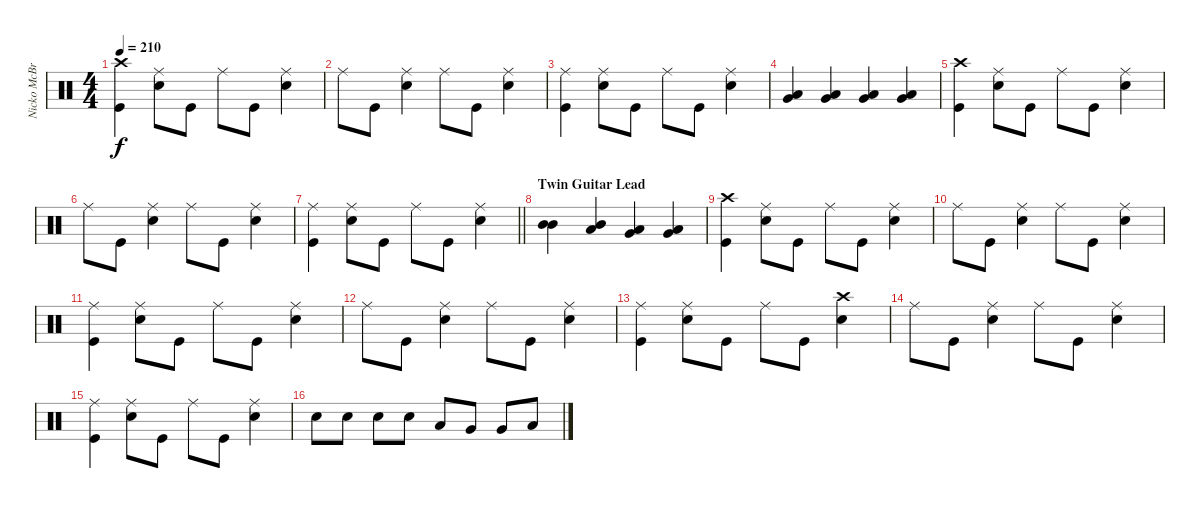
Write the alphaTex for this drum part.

\track ("Nicko McBrain" "Nicko McBr") {instrument percussion}
\staff {score}
\articulation defaults
\ts (4 4)
\tempo 210
\clef neutral
\ks c
("Crash high (hit)" "Kick (hit)").4{dy f} ("Ride (middle)" "Snare (hit) 2").8 "Kick (hit)".8 "Ride (middle)".8 "Kick (hit)".8 ("Ride (middle)" "Snare (hit) 2").4 |
"Ride (middle)".8 "Kick (hit)".8 ("Ride (middle)" "Snare (hit) 2").4 "Ride (middle)".8 "Kick (hit)".8 ("Ride (middle)" "Snare (hit) 2").4 |
("Ride (middle)" "Kick (hit)").4 ("Ride (middle)" "Snare (hit) 2").8 "Kick (hit)".8 "Ride (middle)".8 "Kick (hit)".8 ("Ride (middle)" "Snare (hit) 2").4 |
("Very Low Tom (hit)" "Low Floor Tom (hit)").4 ("Very Low Tom (hit)" "Low Floor Tom (hit)").4 ("Low Tom (hit)" "Very Low Tom (hit)").4 ("Low Tom (hit)" "Very Low Tom (hit)").4 |
("Crash high (hit)" "Kick (hit)").4 ("Ride (middle)" "Snare (hit) 2").8 "Kick (hit)".8 "Ride (middle)".8 "Kick (hit)".8 ("Ride (middle)" "Snare (hit) 2").4 |
"Ride (middle)".8 "Kick (hit)".8 ("Ride (middle)" "Snare (hit) 2").4 "Ride (middle)".8 "Kick (hit)".8 ("Ride (middle)" "Snare (hit) 2").4 |
\barLineRight lightlight
("Ride (middle)" "Kick (hit)").4 ("Ride (middle)" "Snare (hit) 2").8 "Kick (hit)".8 "Ride (middle)".8 "Kick (hit)".8 ("Ride (middle)" "Snare (hit) 2").4 |
\section ("" "Twin Guitar Lead")
("Mid Tom (hit)" "Mid Tom (hit)").4 ("Mid Tom (hit)" "Low Tom (hit)").4 ("Low Tom (hit)" "Very Low Tom (hit)").4 ("Very Low Tom (hit)" "Low Floor Tom (hit)").4 |
("Crash high (hit)" "Kick (hit)").4 ("Ride (middle)" "Snare (hit) 2").8 "Kick (hit)".8 "Ride (middle)".8 "Kick (hit)".8 ("Ride (middle)" "Snare (hit) 2").4 |
"Ride (middle)".8 "Kick (hit)".8 ("Ride (middle)" "Snare (hit) 2").4 "Ride (middle)".8 "Kick (hit)".8 ("Ride (middle)" "Snare (hit) 2").4 |
("Ride (middle)" "Kick (hit)").4 ("Ride (middle)" "Snare (hit) 2").8 "Kick (hit)".8 "Ride (middle)".8 "Kick (hit)".8 ("Ride (middle)" "Snare (hit) 2").4 |
"Ride (middle)".8 "Kick (hit)".8 ("Ride (middle)" "Snare (hit) 2").4 "Ride (middle)".8 "Kick (hit)".8 ("Ride (middle)" "Snare (hit) 2").4 |
("Ride (middle)" "Kick (hit)").4 ("Ride (middle)" "Snare (hit) 2").8 "Kick (hit)".8 "Ride (middle)".8 "Kick (hit)".8 ("Crash high (hit)" "Snare (hit) 2").4 |
"Ride (middle)".8 "Kick (hit)".8 ("Ride (middle)" "Snare (hit) 2").4 "Ride (middle)".8 "Kick (hit)".8 ("Ride (middle)" "Snare (hit) 2").4 |
("Ride (middle)" "Kick (hit)").4 ("Ride (middle)" "Snare (hit) 2").8 "Kick (hit)".8 "Ride (middle)".8 "Kick (hit)".8 ("Ride (middle)" "Snare (hit) 2").4 |
"Snare (hit) 2".8 "Snare (hit) 2".8 "Snare (hit) 2".8 "Snare (hit) 2".8 "Low Tom (hit)".8 "Very Low Tom (hit)".8 "Very Low Tom (hit)".8 "Low Floor Tom (hit)".8
